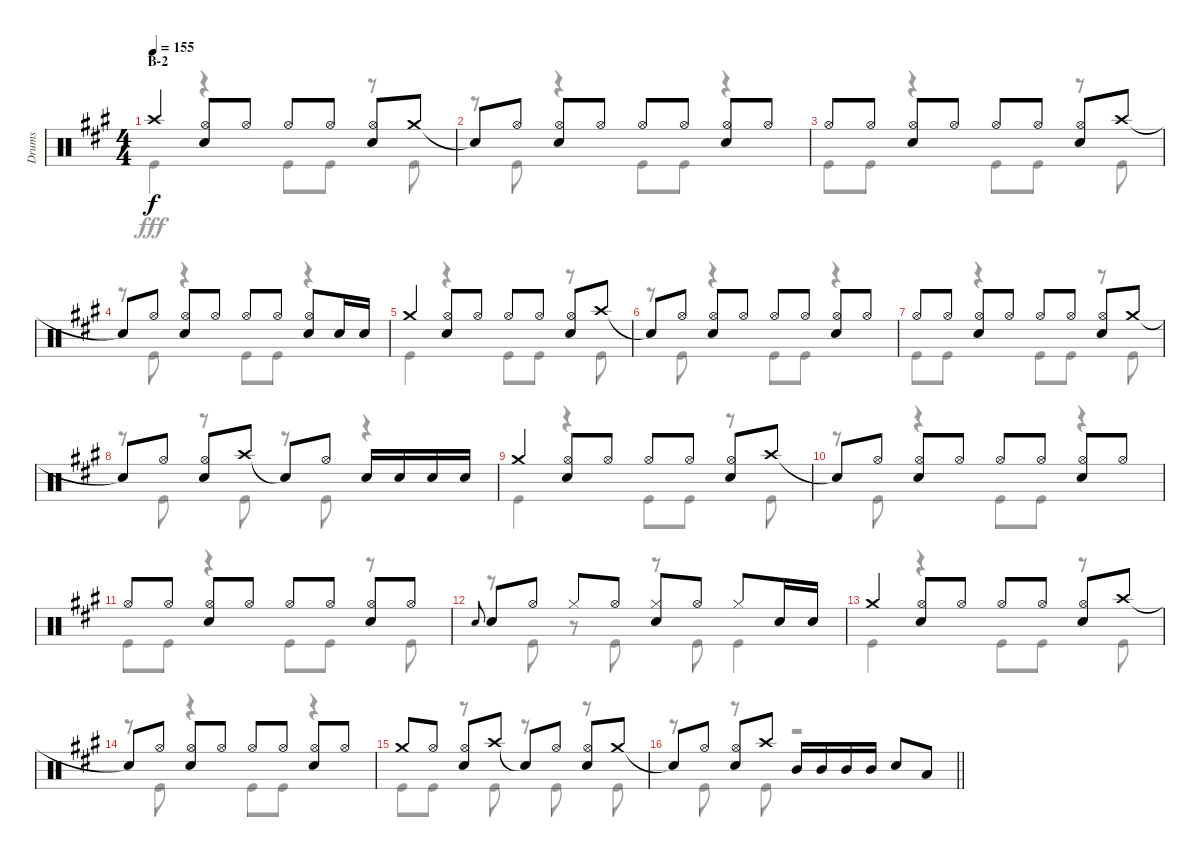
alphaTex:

\track ("Drums" "Drums") {instrument percussion}
\staff {score}
\articulation defaults
\voice
\ts (4 4)
\section ("" "B-2")
\tempo 155
\clef neutral
\ks a "Crash high (hit)".4{dy f}
("Hi-Hat (open)" "Snare (hit) 2").8 "Hi-Hat (open)".8 "Hi-Hat (open)".8 "Hi-Hat (open)".8 ("Hi-Hat (open)" "Snare (hit) 2").8 "Crash medium (hit)".8 |
"Snare (hit)"{t}.8 "Hi-Hat (open)".8 ("Hi-Hat (open)" "Snare (hit) 2").8 "Hi-Hat (open)".8 "Hi-Hat (open)".8 "Hi-Hat (open)".8 ("Hi-Hat (open)" "Snare (hit) 2").8 "Hi-Hat (open)".8 |
"Hi-Hat (open)".8 "Hi-Hat (open)".8 ("Hi-Hat (open)" "Snare (hit) 2").8 "Hi-Hat (open)".8 "Hi-Hat (open)".8 "Hi-Hat (open)".8 ("Hi-Hat (open)" "Snare (hit) 2").8 "Crash high (hit)".8 |
"Snare (hit)"{t}.8 "Hi-Hat (open)".8 ("Hi-Hat (open)" "Snare (hit) 2").8 "Hi-Hat (open)".8 "Hi-Hat (open)".8 "Hi-Hat (open)".8 ("Hi-Hat (open)" "Snare (hit) 2").8 "Snare (hit) 2".16 "Snare (hit) 2".16 |
"Crash medium (hit)".4 ("Hi-Hat (open)" "Snare (hit) 2").8 "Hi-Hat (open)".8 "Hi-Hat (open)".8 "Hi-Hat (open)".8 ("Hi-Hat (open)" "Snare (hit) 2").8 "Crash high (hit)".8 |
"Snare (hit)"{t}.8 "Hi-Hat (open)".8 ("Hi-Hat (open)" "Snare (hit) 2").8 "Hi-Hat (open)".8 "Hi-Hat (open)".8 "Hi-Hat (open)".8 ("Hi-Hat (open)" "Snare (hit) 2").8 "Hi-Hat (open)".8 |
"Hi-Hat (open)".8 "Hi-Hat (open)".8 ("Hi-Hat (open)" "Snare (hit) 2").8 "Hi-Hat (open)".8 "Hi-Hat (open)".8 "Hi-Hat (open)".8 ("Hi-Hat (open)" "Snare (hit) 2").8 "Crash medium (hit)".8 |
"Snare (hit)"{t}.8 "Hi-Hat (open)".8 ("Hi-Hat (open)" "Snare (hit) 2").8 "Crash high (hit)".8 "Snare (hit)"{t}.8 "Hi-Hat (open)".8 "Snare (hit) 2".16 "Snare (hit) 2".16 "Snare (hit) 2".16 "Snare (hit) 2".16 |
"Crash medium (hit)".4 ("Hi-Hat (open)" "Snare (hit) 2").8 "Hi-Hat (open)".8 "Hi-Hat (open)".8 "Hi-Hat (open)".8 ("Hi-Hat (open)" "Snare (hit) 2").8 "Crash high (hit)".8 |
"Snare (hit)"{t}.8 "Hi-Hat (open)".8 ("Hi-Hat (open)" "Snare (hit) 2").8 "Hi-Hat (open)".8 "Hi-Hat (open)".8 "Hi-Hat (open)".8 ("Hi-Hat (open)" "Snare (hit) 2").8 "Hi-Hat (open)".8 |
"Hi-Hat (open)".8 "Hi-Hat (open)".8 ("Hi-Hat (open)" "Snare (hit) 2").8 "Hi-Hat (open)".8 "Hi-Hat (open)".8 "Hi-Hat (open)".8 ("Hi-Hat (open)" "Snare (hit) 2").8 "Hi-Hat (open)".8 |
"Snare (hit) 2".8{gr onbeat} "Snare (hit) 2".8 "Hi-Hat (open)".8 "Hi-Hat (closed)".8 "Hi-Hat (open)".8 ("Hi-Hat (closed)" "Snare (hit) 2").8 "Hi-Hat (open)".8 "Hi-Hat (closed)".8 "Snare (hit) 2".16 "Snare (hit) 2".16 |
"Crash medium (hit)".4 ("Hi-Hat (open)" "Snare (hit) 2").8 "Hi-Hat (open)".8 "Hi-Hat (open)".8 "Hi-Hat (open)".8 ("Hi-Hat (open)" "Snare (hit) 2").8 "Crash high (hit)".8 |
"Snare (hit)"{t}.8 "Hi-Hat (open)".8 ("Hi-Hat (open)" "Snare (hit) 2").8 "Hi-Hat (open)".8 "Hi-Hat (open)".8 "Hi-Hat (open)".8 ("Hi-Hat (open)" "Snare (hit) 2").8 "Hi-Hat (open)".8 |
"Crash medium (hit)".8 "Hi-Hat (open)".8 ("Hi-Hat (open)" "Snare (hit) 2").8 "Crash high (hit)".8 "Snare (hit)"{t}.8 "Hi-Hat (open)".8 ("Hi-Hat (open)" "Snare (hit) 2").8 "Crash medium (hit)".8 |
\barLineRight lightlight "Snare (hit)"{t}.8 "Hi-Hat (open)".8
("Hi-Hat (open)" "Snare (hit) 2").8 "Crash high (hit)".8 "Mid Tom (hit)".16 "Mid Tom (hit)".16 "Mid Tom (hit)".16 "Mid Tom (hit)".16 "Snare (hit) 2".8 "Low Tom (hit)".8
\voice
\clef neutral
\ottava regular
\simile none
\ks a "Kick (hit)".4{dy fff}
r.4 "Kick (hit)".8 "Kick (hit)".8 r.8 "Kick (hit)".8 |
r.8 "Kick (hit)".8 r.4 "Kick (hit)".8 "Kick (hit)".8 r.4 |
"Kick (hit)".8 "Kick (hit)".8 r.4 "Kick (hit)".8 "Kick (hit)".8 r.8 "Kick (hit)".8 |
r.8 "Kick (hit)".8 r.4 "Kick (hit)".8 "Kick (hit)".8 r.4 |
"Kick (hit)".4 r.4 "Kick (hit)".8 "Kick (hit)".8 r.8 "Kick (hit)".8 |
r.8 "Kick (hit)".8 r.4 "Kick (hit)".8 "Kick (hit)".8 r.4 |
"Kick (hit)".8 "Kick (hit)".8 r.4 "Kick (hit)".8 "Kick (hit)".8 r.8 "Kick (hit)".8 |
r.8 "Kick (hit)".8 r.8 "Kick (hit)".8 r.8 "Kick (hit)".8 r.4 |
"Kick (hit)".4 r.4 "Kick (hit)".8 "Kick (hit)".8 r.8 "Kick (hit)".8 |
r.8 "Kick (hit)".8 r.4 "Kick (hit)".8 "Kick (hit)".8 r.4 |
"Kick (hit)".8 "Kick (hit)".8 r.4 "Kick (hit)".8 "Kick (hit)".8 r.8 "Kick (hit)".8 |
r.8 "Kick (hit)".8 r.8 "Kick (hit)".8 r.8 "Kick (hit)".8 "Kick (hit)".4 |
"Kick (hit)".4 r.4 "Kick (hit)".8 "Kick (hit)".8 r.8 "Kick (hit)".8 |
r.8 "Kick (hit)".8 r.4 "Kick (hit)".8 "Kick (hit)".8 r.4 |
"Kick (hit)".8 "Kick (hit)".8 r.8 "Kick (hit)".8 r.8 "Kick (hit)".8 r.8 "Kick (hit)".8 |
\barLineRight lightlight
r.8 "Kick (hit)".8 r.8 "Kick (hit)".8 r.2
